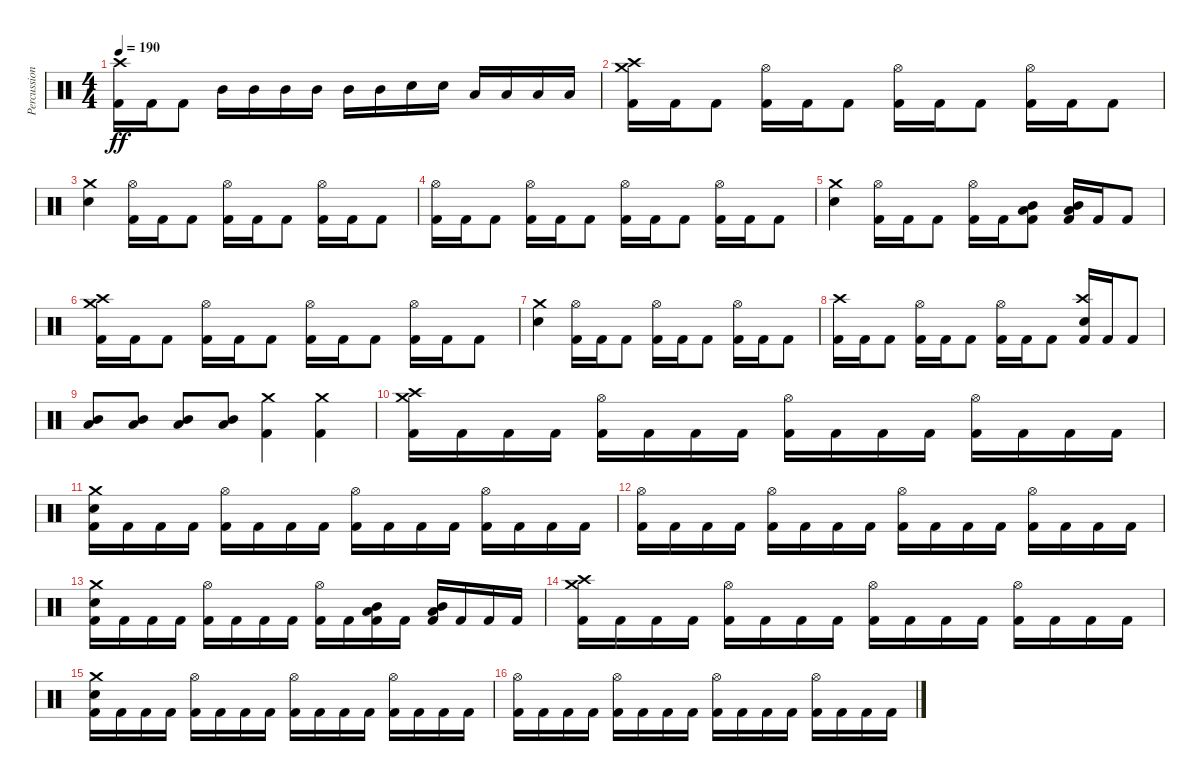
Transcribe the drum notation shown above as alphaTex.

\track ("Percussion" "Percussion") {instrument percussion}
\staff {score}
\articulation defaults
\ts (4 4)
\tempo 190
\clef neutral
\ks c
("Kick (hit) 2" "Crash high (hit)").16{dy ff} "Kick (hit) 2".16 "Kick (hit) 2".8 "Mid Tom (hit)".16 "Mid Tom (hit)".16 "Mid Tom (hit)".16 "Mid Tom (hit)".16 "Mid Tom (hit)".16 "Mid Tom (hit)".16 "Electric Snare (hit)".16 "Electric Snare (hit)".16 "Low Tom (hit)".16 "Low Tom (hit)".16 "Low Tom (hit)".16 "Low Tom (hit)".16 |
("Kick (hit) 2" "Crash medium (hit)" "Crash high (hit)").16 "Kick (hit) 2".16 "Kick (hit) 2".8 ("Kick (hit) 2" "Hi-Hat (open)").16 "Kick (hit) 2".16 "Kick (hit) 2".8 ("Kick (hit) 2" "Hi-Hat (open)").16 "Kick (hit) 2".16 "Kick (hit) 2".8 ("Kick (hit) 2" "Hi-Hat (open)").16 "Kick (hit) 2".16 "Kick (hit) 2".8 |
("Crash medium (hit)" "Electric Snare (hit)").4 ("Kick (hit) 2" "Hi-Hat (open)").16 "Kick (hit) 2".16 "Kick (hit) 2".8 ("Kick (hit) 2" "Hi-Hat (open)").16 "Kick (hit) 2".16 "Kick (hit) 2".8 ("Kick (hit) 2" "Hi-Hat (open)").16 "Kick (hit) 2".16 "Kick (hit) 2".8 |
("Kick (hit) 2" "Hi-Hat (open)").16 "Kick (hit) 2".16 "Kick (hit) 2".8 ("Kick (hit) 2" "Hi-Hat (open)").16 "Kick (hit) 2".16 "Kick (hit) 2".8 ("Kick (hit) 2" "Hi-Hat (open)").16 "Kick (hit) 2".16 "Kick (hit) 2".8 ("Kick (hit) 2" "Hi-Hat (open)").16 "Kick (hit) 2".16 "Kick (hit) 2".8 |
("Crash medium (hit)" "Electric Snare (hit)").4 ("Kick (hit) 2" "Hi-Hat (open)").16 "Kick (hit) 2".16 "Kick (hit) 2".8 ("Kick (hit) 2" "Hi-Hat (open)").16 "Kick (hit) 2".16 ("Kick (hit) 2" "Low Tom (hit)" "Mid Tom (hit)").8 ("Kick (hit) 2" "Low Tom (hit)" "Mid Tom (hit)").16 "Kick (hit) 2".16 "Kick (hit) 2".8 |
("Kick (hit) 2" "Crash medium (hit)" "Crash high (hit)").16 "Kick (hit) 2".16 "Kick (hit) 2".8 ("Kick (hit) 2" "Hi-Hat (open)").16 "Kick (hit) 2".16 "Kick (hit) 2".8 ("Kick (hit) 2" "Hi-Hat (open)").16 "Kick (hit) 2".16 "Kick (hit) 2".8 ("Kick (hit) 2" "Hi-Hat (open)").16 "Kick (hit) 2".16 "Kick (hit) 2".8 |
("Crash medium (hit)" "Electric Snare (hit)").4 ("Kick (hit) 2" "Hi-Hat (open)").16 "Kick (hit) 2".16 "Kick (hit) 2".8 ("Kick (hit) 2" "Hi-Hat (open)").16 "Kick (hit) 2".16 "Kick (hit) 2".8 ("Kick (hit) 2" "Hi-Hat (open)").16 "Kick (hit) 2".16 "Kick (hit) 2".8 |
("Kick (hit) 2" "Crash high (hit)").16 "Kick (hit) 2".16 "Kick (hit) 2".8 ("Kick (hit) 2" "Hi-Hat (open)").16 "Kick (hit) 2".16 "Kick (hit) 2".8 ("Kick (hit) 2" "Hi-Hat (open)").16 "Kick (hit) 2".16 "Kick (hit) 2".8 ("Kick (hit) 2" "Electric Snare (hit)" "Crash high (hit)").16 "Kick (hit) 2".16 "Kick (hit) 2".8 |
("Low Tom (hit)" "Mid Tom (hit)").8 ("Low Tom (hit)" "Mid Tom (hit)").8 ("Low Tom (hit)" "Mid Tom (hit)").8 ("Low Tom (hit)" "Mid Tom (hit)").8 ("Kick (hit) 2" "Crash medium (hit)").4 ("Kick (hit) 2" "Crash medium (hit)").4 |
("Kick (hit) 2" "Crash medium (hit)" "Crash high (hit)").16 "Kick (hit) 2".16 "Kick (hit) 2".16 "Kick (hit) 2".16 ("Kick (hit) 2" "Hi-Hat (open)").16 "Kick (hit) 2".16 "Kick (hit) 2".16 "Kick (hit) 2".16 ("Kick (hit) 2" "Hi-Hat (open)").16 "Kick (hit) 2".16 "Kick (hit) 2".16 "Kick (hit) 2".16 ("Kick (hit) 2" "Hi-Hat (open)").16 "Kick (hit) 2".16 "Kick (hit) 2".16 "Kick (hit) 2".16 |
("Kick (hit) 2" "Crash medium (hit)" "Electric Snare (hit)").16 "Kick (hit) 2".16 "Kick (hit) 2".16 "Kick (hit) 2".16 ("Kick (hit) 2" "Hi-Hat (open)").16 "Kick (hit) 2".16 "Kick (hit) 2".16 "Kick (hit) 2".16 ("Kick (hit) 2" "Hi-Hat (open)").16 "Kick (hit) 2".16 "Kick (hit) 2".16 "Kick (hit) 2".16 ("Kick (hit) 2" "Hi-Hat (open)").16 "Kick (hit) 2".16 "Kick (hit) 2".16 "Kick (hit) 2".16 |
("Kick (hit) 2" "Hi-Hat (open)").16 "Kick (hit) 2".16 "Kick (hit) 2".16 "Kick (hit) 2".16 ("Kick (hit) 2" "Hi-Hat (open)").16 "Kick (hit) 2".16 "Kick (hit) 2".16 "Kick (hit) 2".16 ("Kick (hit) 2" "Hi-Hat (open)").16 "Kick (hit) 2".16 "Kick (hit) 2".16 "Kick (hit) 2".16 ("Kick (hit) 2" "Hi-Hat (open)").16 "Kick (hit) 2".16 "Kick (hit) 2".16 "Kick (hit) 2".16 |
("Kick (hit) 2" "Crash medium (hit)" "Electric Snare (hit)").16 "Kick (hit) 2".16 "Kick (hit) 2".16 "Kick (hit) 2".16 ("Kick (hit) 2" "Hi-Hat (open)").16 "Kick (hit) 2".16 "Kick (hit) 2".16 "Kick (hit) 2".16 ("Kick (hit) 2" "Hi-Hat (open)").16 "Kick (hit) 2".16 ("Kick (hit) 2" "Low Tom (hit)" "Mid Tom (hit)").16 "Kick (hit) 2".16 ("Kick (hit) 2" "Low Tom (hit)" "Mid Tom (hit)").16 "Kick (hit) 2".16 "Kick (hit) 2".16 "Kick (hit) 2".16 |
("Kick (hit) 2" "Crash medium (hit)" "Crash high (hit)").16 "Kick (hit) 2".16 "Kick (hit) 2".16 "Kick (hit) 2".16 ("Kick (hit) 2" "Hi-Hat (open)").16 "Kick (hit) 2".16 "Kick (hit) 2".16 "Kick (hit) 2".16 ("Kick (hit) 2" "Hi-Hat (open)").16 "Kick (hit) 2".16 "Kick (hit) 2".16 "Kick (hit) 2".16 ("Kick (hit) 2" "Hi-Hat (open)").16 "Kick (hit) 2".16 "Kick (hit) 2".16 "Kick (hit) 2".16 |
("Kick (hit) 2" "Crash medium (hit)" "Electric Snare (hit)").16 "Kick (hit) 2".16 "Kick (hit) 2".16 "Kick (hit) 2".16 ("Kick (hit) 2" "Hi-Hat (open)").16 "Kick (hit) 2".16 "Kick (hit) 2".16 "Kick (hit) 2".16 ("Kick (hit) 2" "Hi-Hat (open)").16 "Kick (hit) 2".16 "Kick (hit) 2".16 "Kick (hit) 2".16 ("Kick (hit) 2" "Hi-Hat (open)").16 "Kick (hit) 2".16 "Kick (hit) 2".16 "Kick (hit) 2".16 |
("Kick (hit) 2" "Hi-Hat (open)").16 "Kick (hit) 2".16 "Kick (hit) 2".16 "Kick (hit) 2".16 ("Kick (hit) 2" "Hi-Hat (open)").16 "Kick (hit) 2".16 "Kick (hit) 2".16 "Kick (hit) 2".16 ("Kick (hit) 2" "Hi-Hat (open)").16 "Kick (hit) 2".16 "Kick (hit) 2".16 "Kick (hit) 2".16 ("Kick (hit) 2" "Hi-Hat (open)").16 "Kick (hit) 2".16 "Kick (hit) 2".16 "Kick (hit) 2".16
